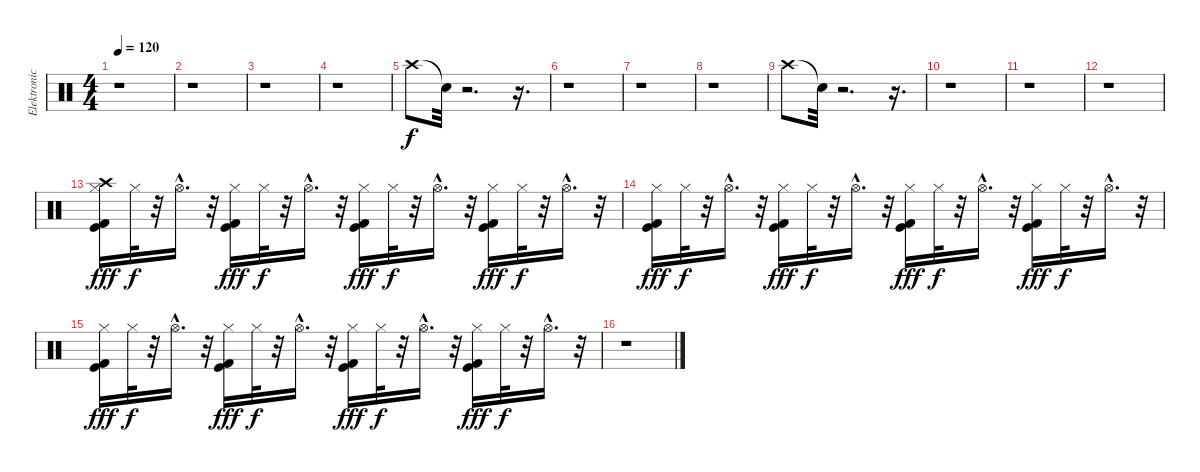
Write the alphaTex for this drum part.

\track ("Elektronické bicí 2" "Elektronic") {instrument percussion}
\staff {score}
\articulation defaults
\ts (4 4)
\tempo 120
\clef neutral
\ks c
r.1{dy f} |
r.1 |
r.1 |
r.1 |
"Crash high (hit)".8 "Snare (hit)"{t}.32 r.2{d} r.16{d} |
r.1 |
r.1 |
r.1 |
"Crash high (hit)".8 "Snare (hit)"{t}.32 r.2{d} r.16{d} |
r.1 |
r.1 |
r.1 |
("Crash high (hit)" "Hi-Hat (closed)" "Kick (hit) 2" "Kick (hit)").16{dy fff} "Hi-Hat (closed)".32{dy f} r.32 "Hi-Hat (open)"{hac}.16{d} r.32 ("Hi-Hat (closed)" "Kick (hit) 2" "Kick (hit)").16{dy fff} "Hi-Hat (closed)".32{dy f} r.32 "Hi-Hat (open)"{hac}.16{d} r.32 ("Hi-Hat (closed)" "Kick (hit) 2" "Kick (hit)").16{dy fff} "Hi-Hat (closed)".32{dy f} r.32 "Hi-Hat (open)"{hac}.16{d} r.32 ("Hi-Hat (closed)" "Kick (hit) 2" "Kick (hit)").16{dy fff} "Hi-Hat (closed)".32{dy f} r.32 "Hi-Hat (open)"{hac}.16{d} r.32 |
("Hi-Hat (closed)" "Kick (hit) 2" "Kick (hit)").16{dy fff} "Hi-Hat (closed)".32{dy f} r.32 "Hi-Hat (open)"{hac}.16{d} r.32 ("Hi-Hat (closed)" "Kick (hit) 2" "Kick (hit)").16{dy fff} "Hi-Hat (closed)".32{dy f} r.32 "Hi-Hat (open)"{hac}.16{d} r.32 ("Hi-Hat (closed)" "Kick (hit) 2" "Kick (hit)").16{dy fff} "Hi-Hat (closed)".32{dy f} r.32 "Hi-Hat (open)"{hac}.16{d} r.32 ("Hi-Hat (closed)" "Kick (hit) 2" "Kick (hit)").16{dy fff} "Hi-Hat (closed)".32{dy f} r.32 "Hi-Hat (open)"{hac}.16{d} r.32 |
("Hi-Hat (closed)" "Kick (hit) 2" "Kick (hit)").16{dy fff} "Hi-Hat (closed)".32{dy f} r.32 "Hi-Hat (open)"{hac}.16{d} r.32 ("Hi-Hat (closed)" "Kick (hit) 2" "Kick (hit)").16{dy fff} "Hi-Hat (closed)".32{dy f} r.32 "Hi-Hat (open)"{hac}.16{d} r.32 ("Hi-Hat (closed)" "Kick (hit) 2" "Kick (hit)").16{dy fff} "Hi-Hat (closed)".32{dy f} r.32 "Hi-Hat (open)"{hac}.16{d} r.32 ("Hi-Hat (closed)" "Kick (hit) 2" "Kick (hit)").16{dy fff} "Hi-Hat (closed)".32{dy f} r.32 "Hi-Hat (open)"{hac}.16{d} r.32 |
r.1
